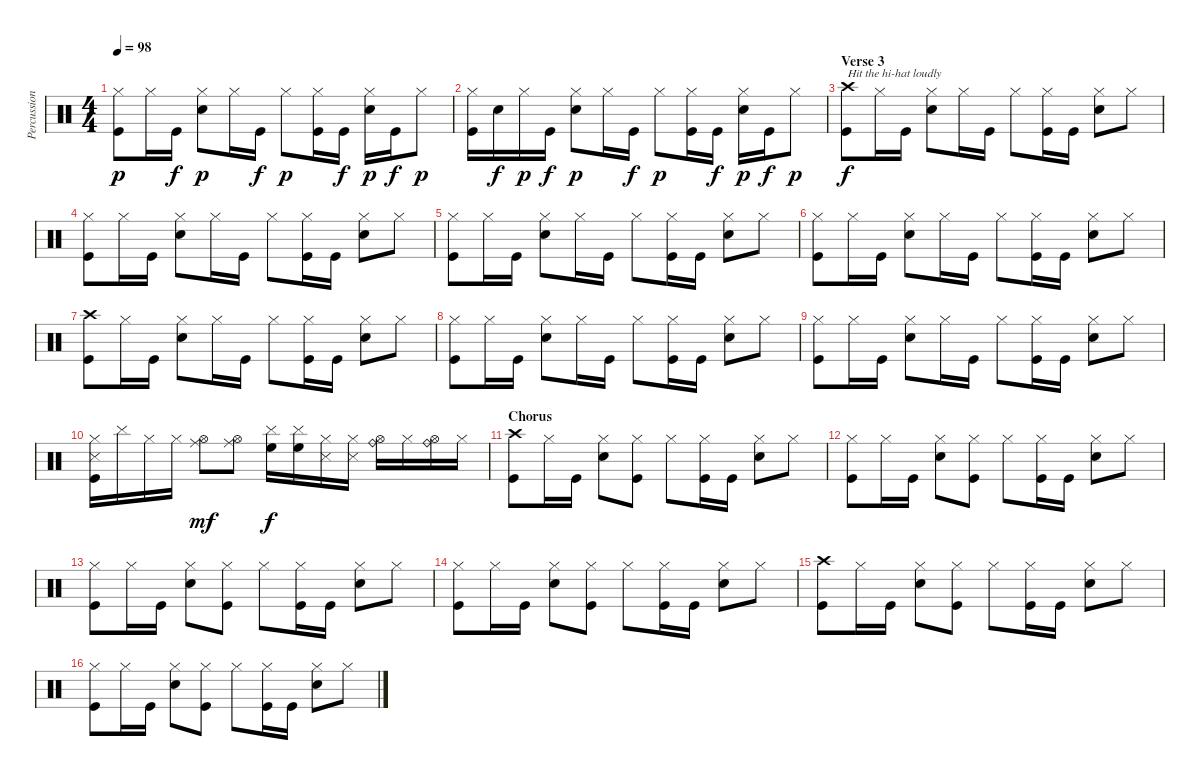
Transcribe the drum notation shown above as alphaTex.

\track ("Percussion" "Percussion") {instrument percussion}
\staff {score}
\articulation defaults
\ts (4 4)
\tempo 98
\clef neutral
\ks c
("Hi-Hat (closed)" "Kick (hit)").8{dy p volume 14} "Hi-Hat (closed)".16 "Kick (hit)".16{dy f} ("Hi-Hat (closed)" "Electric Snare (hit)").8{dy p} "Hi-Hat (closed)".16 "Kick (hit)".16{dy f} "Hi-Hat (closed)".8{dy p} ("Hi-Hat (closed)" "Kick (hit)").16 "Kick (hit)".16{dy f} ("Hi-Hat (closed)" "Electric Snare (hit)").16{dy p} "Kick (hit)".16{dy f} "Hi-Hat (closed)".8{dy p} |
("Hi-Hat (closed)" "Kick (hit)").16{volume 14} "Electric Snare (hit)".16{dy f} "Hi-Hat (closed)".16{dy p} "Kick (hit)".16{dy f} ("Hi-Hat (closed)" "Electric Snare (hit)").8{dy p} "Hi-Hat (closed)".16 "Kick (hit)".16{dy f} "Hi-Hat (closed)".8{dy p} ("Hi-Hat (closed)" "Kick (hit)").16 "Kick (hit)".16{dy f} ("Hi-Hat (closed)" "Electric Snare (hit)").16{dy p} "Kick (hit)".16{dy f} "Hi-Hat (closed)".8{dy p} |
\section ("" "Verse 3")
("Crash high (hit)" "Kick (hit)").8{txt "Hit the hi-hat loudly" dy f volume 14} "Hi-Hat (closed)".16 "Kick (hit)".16 ("Hi-Hat (closed)" "Electric Snare (hit)").8 "Hi-Hat (closed)".16 "Kick (hit)".16 "Hi-Hat (closed)".8 ("Hi-Hat (closed)" "Kick (hit)").16 "Kick (hit)".16 ("Hi-Hat (closed)" "Electric Snare (hit)").8 "Hi-Hat (closed)".8 |
("Hi-Hat (closed)" "Kick (hit)").8{volume 14} "Hi-Hat (closed)".16 "Kick (hit)".16 ("Hi-Hat (closed)" "Electric Snare (hit)").8 "Hi-Hat (closed)".16 "Kick (hit)".16 "Hi-Hat (closed)".8 ("Hi-Hat (closed)" "Kick (hit)").16 "Kick (hit)".16 ("Hi-Hat (closed)" "Electric Snare (hit)").8 "Hi-Hat (closed)".8 |
("Hi-Hat (closed)" "Kick (hit)").8{volume 14} "Hi-Hat (closed)".16 "Kick (hit)".16 ("Hi-Hat (closed)" "Electric Snare (hit)").8 "Hi-Hat (closed)".16 "Kick (hit)".16 "Hi-Hat (closed)".8 ("Hi-Hat (closed)" "Kick (hit)").16 "Kick (hit)".16 ("Hi-Hat (closed)" "Electric Snare (hit)").8 "Hi-Hat (closed)".8 |
("Hi-Hat (closed)" "Kick (hit)").8{volume 14} "Hi-Hat (closed)".16 "Kick (hit)".16 ("Hi-Hat (closed)" "Electric Snare (hit)").8 "Hi-Hat (closed)".16 "Kick (hit)".16 "Hi-Hat (closed)".8 ("Hi-Hat (closed)" "Kick (hit)").16 "Kick (hit)".16 ("Hi-Hat (closed)" "Electric Snare (hit)").8 "Hi-Hat (closed)".8 |
("Crash high (hit)" "Kick (hit)").8{volume 14} "Hi-Hat (closed)".16 "Kick (hit)".16 ("Hi-Hat (closed)" "Electric Snare (hit)").8 "Hi-Hat (closed)".16 "Kick (hit)".16 "Hi-Hat (closed)".8 ("Hi-Hat (closed)" "Kick (hit)").16 "Kick (hit)".16 ("Hi-Hat (closed)" "Electric Snare (hit)").8 "Hi-Hat (closed)".8 |
("Hi-Hat (closed)" "Kick (hit)").8{volume 14} "Hi-Hat (closed)".16 "Kick (hit)".16 ("Hi-Hat (closed)" "Electric Snare (hit)").8 "Hi-Hat (closed)".16 "Kick (hit)".16 "Hi-Hat (closed)".8 ("Hi-Hat (closed)" "Kick (hit)").16 "Kick (hit)".16 ("Hi-Hat (closed)" "Electric Snare (hit)").8 "Hi-Hat (closed)".8 |
("Hi-Hat (closed)" "Kick (hit)").8{volume 14} "Hi-Hat (closed)".16 "Kick (hit)".16 ("Hi-Hat (closed)" "Electric Snare (hit)").8 "Hi-Hat (closed)".16 "Kick (hit)".16 "Hi-Hat (closed)".8 ("Hi-Hat (closed)" "Kick (hit)").16 "Kick (hit)".16 ("Hi-Hat (closed)" "Electric Snare (hit)").8 "Hi-Hat (closed)".8 |
("Hi-Hat (closed)" "Snare (side stick) 3" "Kick (hit)").16{volume 14} "Cymbal (hit)".16 "Hi-Hat (closed)".16 "Hi-Hat (closed)".16 ("Hi-Hat (open)" "Ride (middle)").8{dy mf} ("Hi-Hat (open)" "Ride (middle)").8 ("High Floor Tom (hit)" "Cymbal (hit)").16{dy f} ("High Floor Tom (hit)" "Cymbal (hit)").16 ("Snare (side stick) 3" "Hi-Hat (closed)").16 ("Snare (side stick) 3" "Hi-Hat (closed)").16 ("Hi-Hat (open)" "Ride (bell)").16 "Hi-Hat (closed)".16 ("Hi-Hat (open)" "Ride (bell)").16 "Hi-Hat (closed)".16 |
\section ("" "Chorus")
("Crash high (hit)" "Kick (hit)").8{volume 14} "Hi-Hat (closed)".16 "Kick (hit)".16 ("Hi-Hat (closed)" "Electric Snare (hit)").8 ("Hi-Hat (closed)" "Kick (hit)").8 "Hi-Hat (closed)".8 ("Hi-Hat (closed)" "Kick (hit)").16 "Kick (hit)".16 ("Hi-Hat (closed)" "Electric Snare (hit)").8 "Hi-Hat (closed)".8 |
("Hi-Hat (closed)" "Kick (hit)").8{volume 14} "Hi-Hat (closed)".16 "Kick (hit)".16 ("Hi-Hat (closed)" "Electric Snare (hit)").8 ("Hi-Hat (closed)" "Kick (hit)").8 "Hi-Hat (closed)".8 ("Hi-Hat (closed)" "Kick (hit)").16 "Kick (hit)".16 ("Hi-Hat (closed)" "Electric Snare (hit)").8 "Hi-Hat (closed)".8 |
("Hi-Hat (closed)" "Kick (hit)").8{volume 14} "Hi-Hat (closed)".16 "Kick (hit)".16 ("Hi-Hat (closed)" "Electric Snare (hit)").8 ("Hi-Hat (closed)" "Kick (hit)").8 "Hi-Hat (closed)".8 ("Hi-Hat (closed)" "Kick (hit)").16 "Kick (hit)".16 ("Hi-Hat (closed)" "Electric Snare (hit)").8 "Hi-Hat (closed)".8 |
("Hi-Hat (closed)" "Kick (hit)").8{volume 14} "Hi-Hat (closed)".16 "Kick (hit)".16 ("Hi-Hat (closed)" "Electric Snare (hit)").8 ("Hi-Hat (closed)" "Kick (hit)").8 "Hi-Hat (closed)".8 ("Hi-Hat (closed)" "Kick (hit)").16 "Kick (hit)".16 ("Hi-Hat (closed)" "Electric Snare (hit)").8 "Hi-Hat (closed)".8 |
("Crash high (hit)" "Kick (hit)").8{volume 14} "Hi-Hat (closed)".16 "Kick (hit)".16 ("Hi-Hat (closed)" "Electric Snare (hit)").8 ("Hi-Hat (closed)" "Kick (hit)").8 "Hi-Hat (closed)".8 ("Hi-Hat (closed)" "Kick (hit)").16 "Kick (hit)".16 ("Hi-Hat (closed)" "Electric Snare (hit)").8 "Hi-Hat (closed)".8 |
("Hi-Hat (closed)" "Kick (hit)").8{volume 14} "Hi-Hat (closed)".16 "Kick (hit)".16 ("Hi-Hat (closed)" "Electric Snare (hit)").8 ("Hi-Hat (closed)" "Kick (hit)").8 "Hi-Hat (closed)".8 ("Hi-Hat (closed)" "Kick (hit)").16 "Kick (hit)".16 ("Hi-Hat (closed)" "Electric Snare (hit)").8 "Hi-Hat (closed)".8
